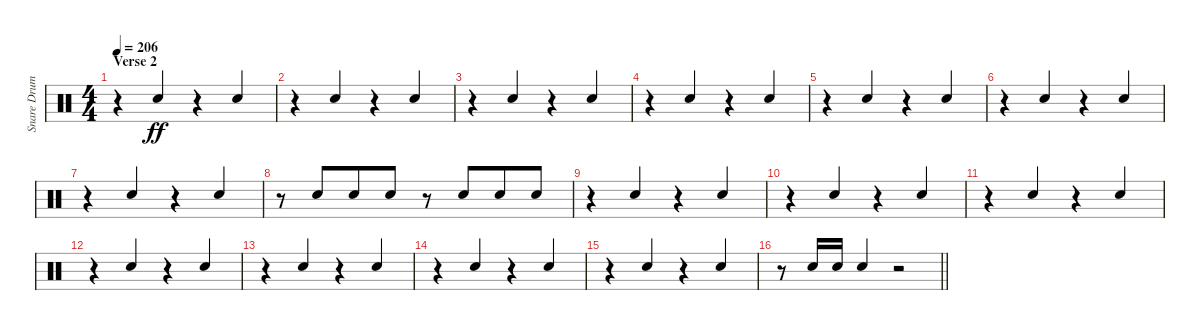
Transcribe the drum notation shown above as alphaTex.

\track ("Snare Drum" "Snare Drum") {instrument percussion}
\staff {score}
\articulation defaults
\ts (4 4)
\section ("" "Verse 2")
\tempo 206
\clef neutral
\ks c
r.4{dy ff} "Electric Snare (hit)".4{beam Up} r.4 "Electric Snare (hit)".4{beam Up} |
r.4 "Electric Snare (hit)".4{beam Up} r.4 "Electric Snare (hit)".4{beam Up} |
r.4 "Electric Snare (hit)".4{beam Up} r.4 "Electric Snare (hit)".4{beam Up} |
r.4 "Electric Snare (hit)".4{beam Up} r.4 "Electric Snare (hit)".4{beam Up} |
r.4 "Electric Snare (hit)".4{beam Up} r.4 "Electric Snare (hit)".4{beam Up} |
r.4 "Electric Snare (hit)".4{beam Up} r.4 "Electric Snare (hit)".4{beam Up} |
r.4 "Electric Snare (hit)".4{beam Up} r.4 "Electric Snare (hit)".4{beam Up} |
r.8 "Electric Snare (hit)".8{beam Up beam merge} "Electric Snare (hit)".8{beam Up} "Electric Snare (hit)".8{beam Up beam split} r.8 "Electric Snare (hit)".8{beam Up beam merge} "Electric Snare (hit)".8{beam Up} "Electric Snare (hit)".8{beam Up} |
r.4 "Electric Snare (hit)".4{beam Up} r.4 "Electric Snare (hit)".4{beam Up} |
r.4 "Electric Snare (hit)".4{beam Up} r.4 "Electric Snare (hit)".4{beam Up} |
r.4 "Electric Snare (hit)".4{beam Up} r.4 "Electric Snare (hit)".4{beam Up} |
r.4 "Electric Snare (hit)".4{beam Up} r.4 "Electric Snare (hit)".4{beam Up} |
r.4 "Electric Snare (hit)".4{beam Up} r.4 "Electric Snare (hit)".4{beam Up} |
r.4 "Electric Snare (hit)".4{beam Up} r.4 "Electric Snare (hit)".4{beam Up} |
r.4 "Electric Snare (hit)".4{beam Up} r.4 "Electric Snare (hit)".4{beam Up} |
\barLineRight lightlight
r.8 "Electric Snare (hit)".16{beam Up} "Electric Snare (hit)".16{beam Up} "Electric Snare (hit)".4{beam Up} r.2
